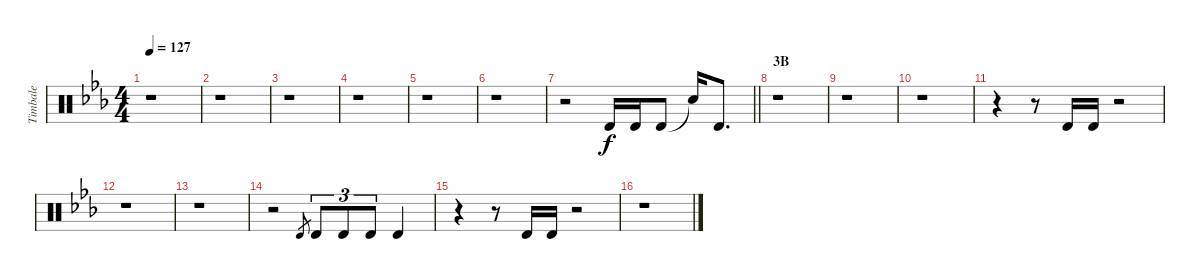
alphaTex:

\track ("Timbale" "Timbale") {instrument percussion}
\staff {score}
\articulation defaults
\ts (4 4)
\tempo 127
\clef neutral
\ks eb
r.1{dy f} |
r.1 |
r.1 |
r.1 |
r.1 |
r.1 |
\barLineRight lightlight
r.2 "Timbale high (hit)".16 "Timbale high (hit)".16 "Timbale high (hit)".8 "Snare (hit)"{t}.16 "Timbale high (hit)".8{d} |
\section ("" "3B")
r.1 |
r.1 |
r.1 |
r.4 r.8 "Timbale high (hit)".16 "Timbale high (hit)".16 r.2 |
r.1 |
r.1 |
r.2 "Timbale high (hit)".8{gr} "Timbale high (hit)".8{tu (3 2)} "Timbale high (hit)".8{tu (3 2)} "Timbale high (hit)".8{tu (3 2)} "Timbale high (hit)".4 |
r.4 r.8 "Timbale high (hit)".16 "Timbale high (hit)".16 r.2 |
r.1
